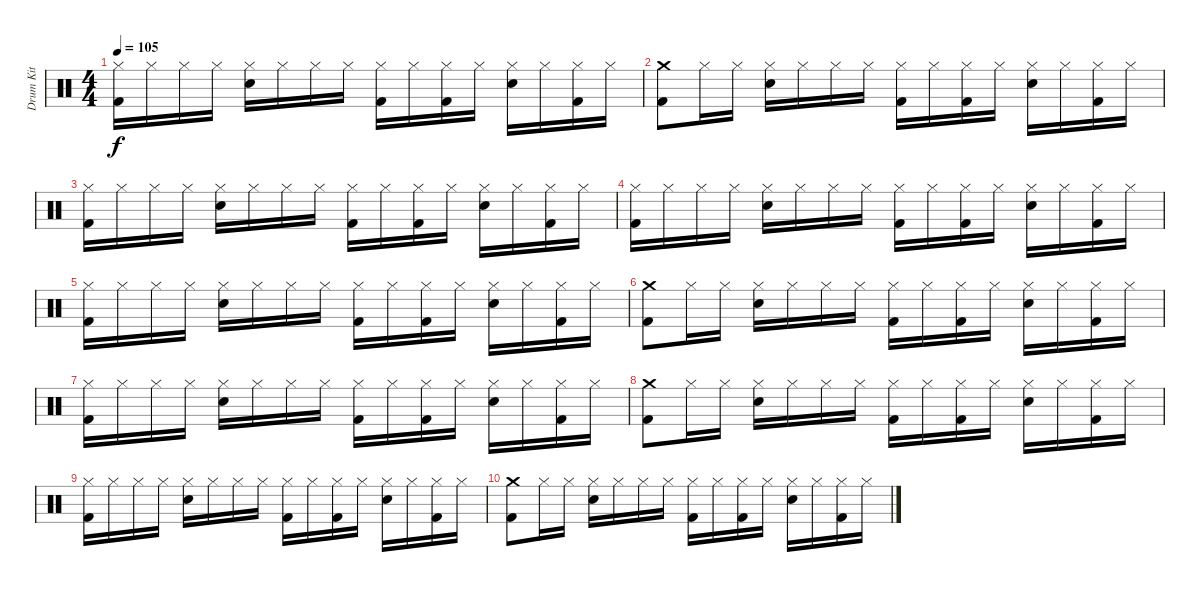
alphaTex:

\track ("Drum Kit" "Drum Kit") {instrument percussion}
\staff {score}
\articulation defaults
\ts (4 4)
\tempo 105
\clef neutral
\ks c
("Hi-Hat (closed)" "Kick (hit) 2").16{dy f} "Hi-Hat (closed)".16 "Hi-Hat (closed)".16 "Hi-Hat (closed)".16 ("Hi-Hat (closed)" "Electric Snare (hit)").16 "Hi-Hat (closed)".16 "Hi-Hat (closed)".16 "Hi-Hat (closed)".16 ("Hi-Hat (closed)" "Kick (hit) 2").16 "Hi-Hat (closed)".16 ("Hi-Hat (closed)" "Kick (hit) 2").16 "Hi-Hat (closed)".16 ("Hi-Hat (closed)" "Electric Snare (hit)").16 "Hi-Hat (closed)".16 ("Hi-Hat (closed)" "Kick (hit) 2").16 "Hi-Hat (closed)".16 |
("Crash medium (hit)" "Kick (hit) 2").8 "Hi-Hat (closed)".16 "Hi-Hat (closed)".16 ("Hi-Hat (closed)" "Electric Snare (hit)").16 "Hi-Hat (closed)".16 "Hi-Hat (closed)".16 "Hi-Hat (closed)".16 ("Hi-Hat (closed)" "Kick (hit) 2").16 "Hi-Hat (closed)".16 ("Hi-Hat (closed)" "Kick (hit) 2").16 "Hi-Hat (closed)".16 ("Hi-Hat (closed)" "Electric Snare (hit)").16 "Hi-Hat (closed)".16 ("Hi-Hat (closed)" "Kick (hit) 2").16 "Hi-Hat (closed)".16 |
("Hi-Hat (closed)" "Kick (hit) 2").16 "Hi-Hat (closed)".16 "Hi-Hat (closed)".16 "Hi-Hat (closed)".16 ("Hi-Hat (closed)" "Electric Snare (hit)").16 "Hi-Hat (closed)".16 "Hi-Hat (closed)".16 "Hi-Hat (closed)".16 ("Hi-Hat (closed)" "Kick (hit) 2").16 "Hi-Hat (closed)".16 ("Hi-Hat (closed)" "Kick (hit) 2").16 "Hi-Hat (closed)".16 ("Hi-Hat (closed)" "Electric Snare (hit)").16 "Hi-Hat (closed)".16 ("Hi-Hat (closed)" "Kick (hit) 2").16 "Hi-Hat (closed)".16 |
("Hi-Hat (closed)" "Kick (hit) 2").16 "Hi-Hat (closed)".16 "Hi-Hat (closed)".16 "Hi-Hat (closed)".16 ("Hi-Hat (closed)" "Electric Snare (hit)").16 "Hi-Hat (closed)".16 "Hi-Hat (closed)".16 "Hi-Hat (closed)".16 ("Hi-Hat (closed)" "Kick (hit) 2").16 "Hi-Hat (closed)".16 ("Hi-Hat (closed)" "Kick (hit) 2").16 "Hi-Hat (closed)".16 ("Hi-Hat (closed)" "Electric Snare (hit)").16 "Hi-Hat (closed)".16 ("Hi-Hat (closed)" "Kick (hit) 2").16 "Hi-Hat (closed)".16 |
("Hi-Hat (closed)" "Kick (hit) 2").16 "Hi-Hat (closed)".16 "Hi-Hat (closed)".16 "Hi-Hat (closed)".16 ("Hi-Hat (closed)" "Electric Snare (hit)").16 "Hi-Hat (closed)".16 "Hi-Hat (closed)".16 "Hi-Hat (closed)".16 ("Hi-Hat (closed)" "Kick (hit) 2").16 "Hi-Hat (closed)".16 ("Hi-Hat (closed)" "Kick (hit) 2").16 "Hi-Hat (closed)".16 ("Hi-Hat (closed)" "Electric Snare (hit)").16 "Hi-Hat (closed)".16 ("Hi-Hat (closed)" "Kick (hit) 2").16 "Hi-Hat (closed)".16 |
("Crash medium (hit)" "Kick (hit) 2").8 "Hi-Hat (closed)".16 "Hi-Hat (closed)".16 ("Hi-Hat (closed)" "Electric Snare (hit)").16 "Hi-Hat (closed)".16 "Hi-Hat (closed)".16 "Hi-Hat (closed)".16 ("Hi-Hat (closed)" "Kick (hit) 2").16 "Hi-Hat (closed)".16 ("Hi-Hat (closed)" "Kick (hit) 2").16 "Hi-Hat (closed)".16 ("Hi-Hat (closed)" "Electric Snare (hit)").16 "Hi-Hat (closed)".16 ("Hi-Hat (closed)" "Kick (hit) 2").16 "Hi-Hat (closed)".16 |
("Hi-Hat (closed)" "Kick (hit) 2").16 "Hi-Hat (closed)".16 "Hi-Hat (closed)".16 "Hi-Hat (closed)".16 ("Hi-Hat (closed)" "Electric Snare (hit)").16 "Hi-Hat (closed)".16 "Hi-Hat (closed)".16 "Hi-Hat (closed)".16 ("Hi-Hat (closed)" "Kick (hit) 2").16 "Hi-Hat (closed)".16 ("Hi-Hat (closed)" "Kick (hit) 2").16 "Hi-Hat (closed)".16 ("Hi-Hat (closed)" "Electric Snare (hit)").16 "Hi-Hat (closed)".16 ("Hi-Hat (closed)" "Kick (hit) 2").16 "Hi-Hat (closed)".16 |
("Crash medium (hit)" "Kick (hit) 2").8 "Hi-Hat (closed)".16 "Hi-Hat (closed)".16 ("Hi-Hat (closed)" "Electric Snare (hit)").16 "Hi-Hat (closed)".16 "Hi-Hat (closed)".16 "Hi-Hat (closed)".16 ("Hi-Hat (closed)" "Kick (hit) 2").16 "Hi-Hat (closed)".16 ("Hi-Hat (closed)" "Kick (hit) 2").16 "Hi-Hat (closed)".16 ("Hi-Hat (closed)" "Electric Snare (hit)").16 "Hi-Hat (closed)".16 ("Hi-Hat (closed)" "Kick (hit) 2").16 "Hi-Hat (closed)".16 |
("Hi-Hat (closed)" "Kick (hit) 2").16 "Hi-Hat (closed)".16 "Hi-Hat (closed)".16 "Hi-Hat (closed)".16 ("Hi-Hat (closed)" "Electric Snare (hit)").16 "Hi-Hat (closed)".16 "Hi-Hat (closed)".16 "Hi-Hat (closed)".16 ("Hi-Hat (closed)" "Kick (hit) 2").16 "Hi-Hat (closed)".16 ("Hi-Hat (closed)" "Kick (hit) 2").16 "Hi-Hat (closed)".16 ("Hi-Hat (closed)" "Electric Snare (hit)").16 "Hi-Hat (closed)".16 ("Hi-Hat (closed)" "Kick (hit) 2").16 "Hi-Hat (closed)".16 |
("Crash medium (hit)" "Kick (hit) 2").8 "Hi-Hat (closed)".16 "Hi-Hat (closed)".16 ("Hi-Hat (closed)" "Electric Snare (hit)").16 "Hi-Hat (closed)".16 "Hi-Hat (closed)".16 "Hi-Hat (closed)".16 ("Hi-Hat (closed)" "Kick (hit) 2").16 "Hi-Hat (closed)".16 ("Hi-Hat (closed)" "Kick (hit) 2").16 "Hi-Hat (closed)".16 ("Hi-Hat (closed)" "Electric Snare (hit)").16 "Hi-Hat (closed)".16 ("Hi-Hat (closed)" "Kick (hit) 2").16 "Hi-Hat (closed)".16
